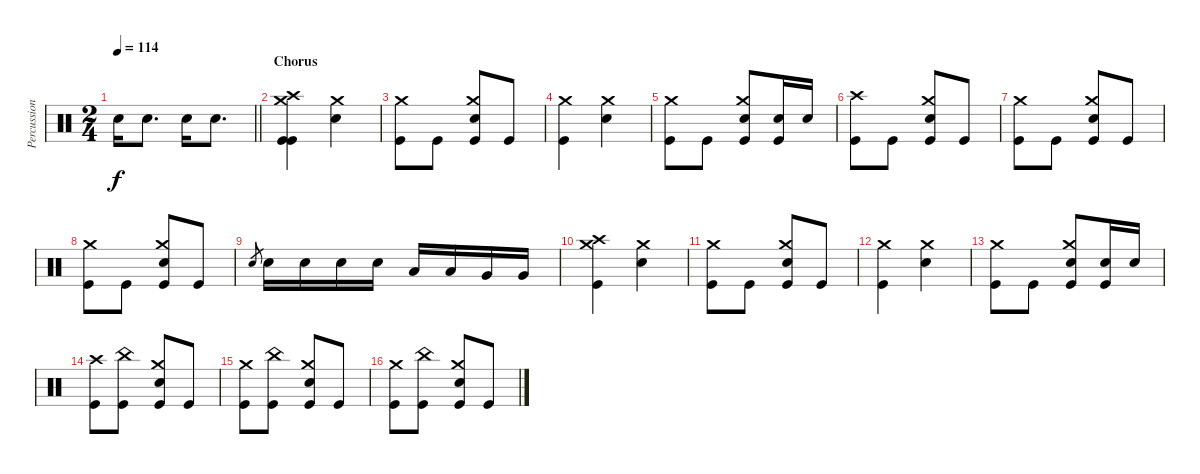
\track ("Percussion" "Percussion") {instrument percussion}
\staff {score}
\articulation defaults
\ts (2 4)
\tempo 114
\clef neutral
\barLineRight lightlight
\ks c "Electric Snare (hit)".16{dy f} "Electric Snare (hit)".8{d} "Electric Snare (hit)".16 "Electric Snare (hit)".8{d}
|
\section ("" "Chorus")
("Crash high (hit)" "Crash medium (hit)" "Kick (hit)" "Kick (hit)").4 ("Crash medium (hit)" "Electric Snare (hit)").4 |
("Crash medium (hit)" "Kick (hit)").8 "Kick (hit)".8 ("Crash medium (hit)" "Electric Snare (hit)" "Kick (hit)").8 "Kick (hit)".8 |
("Crash medium (hit)" "Kick (hit)").4 ("Crash medium (hit)" "Electric Snare (hit)").4 |
("Crash medium (hit)" "Kick (hit)").8 "Kick (hit)".8 ("Crash medium (hit)" "Electric Snare (hit)" "Kick (hit)").8 ("Electric Snare (hit)" "Kick (hit)").16 "Electric Snare (hit)".16 |
("Crash high (hit)" "Kick (hit)").8 "Kick (hit)".8 ("Crash medium (hit)" "Electric Snare (hit)" "Kick (hit)").8 "Kick (hit)".8 |
("Crash medium (hit)" "Kick (hit)").8 "Kick (hit)".8 ("Crash medium (hit)" "Electric Snare (hit)" "Kick (hit)").8 "Kick (hit)".8 |
("Crash medium (hit)" "Kick (hit)").8 "Kick (hit)".8 ("Crash medium (hit)" "Electric Snare (hit)" "Kick (hit)").8 "Kick (hit)".8 |
"Electric Snare (hit)".8{gr} "Electric Snare (hit)".16 "Electric Snare (hit)".16 "Electric Snare (hit)".16 "Electric Snare (hit)".16 "Low Tom (hit)".16 "Low Tom (hit)".16 "Very Low Tom (hit)".16 "Very Low Tom (hit)".16 |
("Crash high (hit)" "Crash medium (hit)" "Kick (hit)").4 ("Crash medium (hit)" "Electric Snare (hit)").4 |
("Crash medium (hit)" "Kick (hit)").8 "Kick (hit)".8 ("Crash medium (hit)" "Electric Snare (hit)" "Kick (hit)").8 "Kick (hit)".8 |
("Crash medium (hit)" "Kick (hit)").4 ("Crash medium (hit)" "Electric Snare (hit)").4 |
("Crash medium (hit)" "Kick (hit)").8 "Kick (hit)".8 ("Crash medium (hit)" "Electric Snare (hit)" "Kick (hit)").8 ("Electric Snare (hit)" "Kick (hit)").16 "Electric Snare (hit)".16 |
("Crash high (hit)" "Kick (hit)").8 ("China (hit)" "Kick (hit)").8 ("Crash medium (hit)" "Electric Snare (hit)" "Kick (hit)").8 "Kick (hit)".8 |
("Crash medium (hit)" "Kick (hit)").8 ("China (hit)" "Kick (hit)").8 ("Crash medium (hit)" "Electric Snare (hit)" "Kick (hit)").8 "Kick (hit)".8 |
("Crash medium (hit)" "Kick (hit)").8 ("China (hit)" "Kick (hit)").8 ("Crash medium (hit)" "Electric Snare (hit)" "Kick (hit)").8 "Kick (hit)".8
